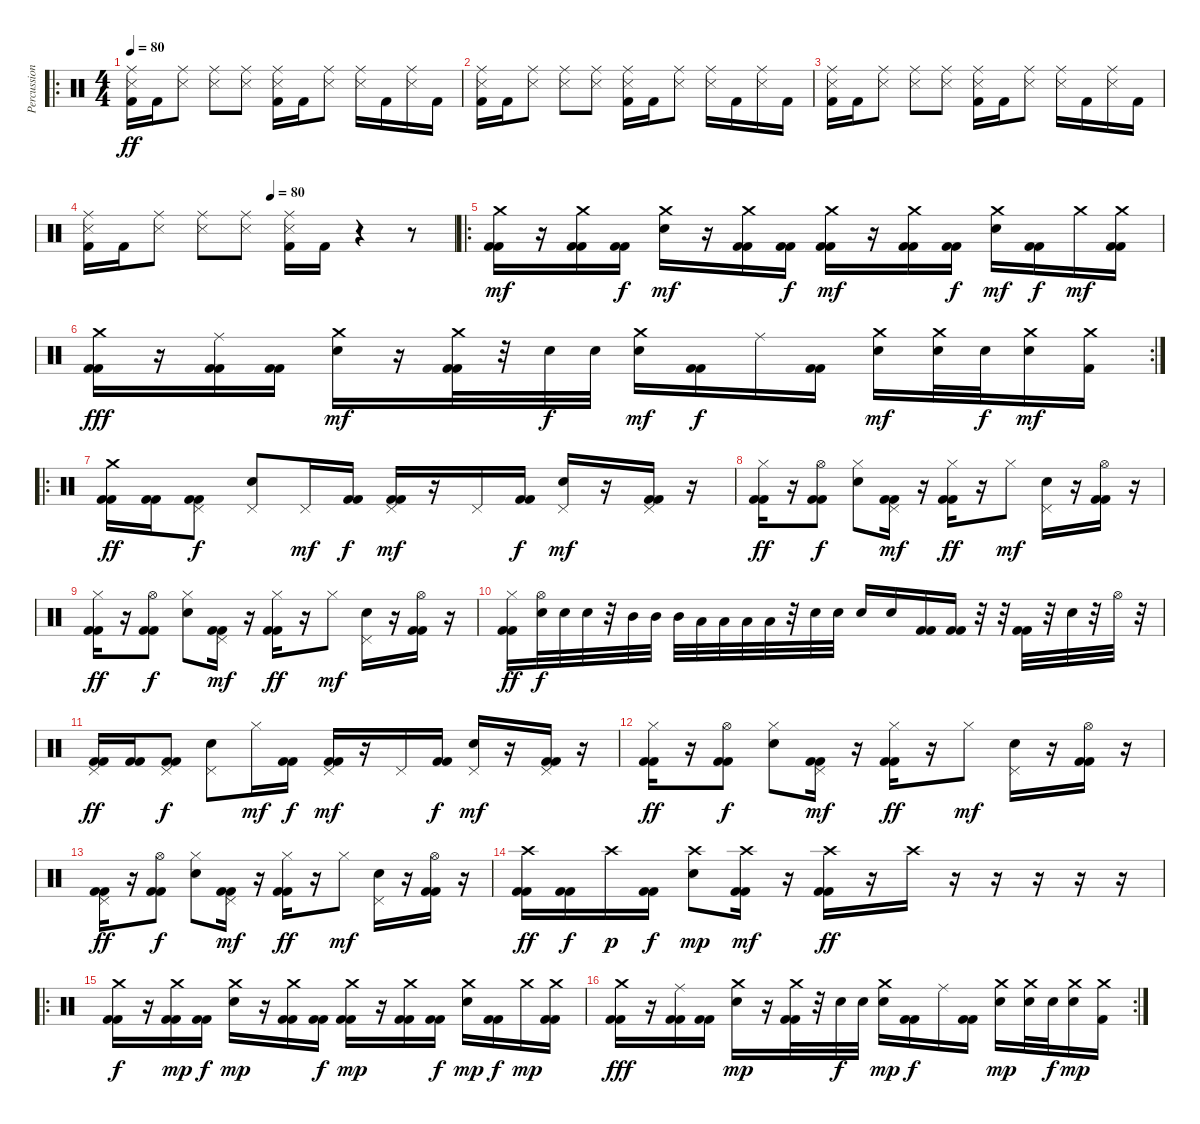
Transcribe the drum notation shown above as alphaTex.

\track ("Percussion" "Percussion") {instrument percussion}
\staff {score}
\articulation defaults
\ro
\ts (4 4)
\tempo 80
\clef neutral
\ks c
("Ride (middle)" "Metronome (hit)" "Kick (hit) 2").16{dy ff} "Kick (hit) 2".16 ("Ride (middle)" "Metronome (hit)").8 ("Ride (middle)" "Metronome (hit)").8 ("Ride (middle)" "Metronome (hit)").8 ("Ride (middle)" "Metronome (hit)" "Kick (hit) 2").16 "Kick (hit) 2".16 ("Ride (middle)" "Metronome (hit)").8 ("Ride (middle)" "Metronome (hit)").16 "Kick (hit) 2".16 ("Ride (middle)" "Metronome (hit)").16 "Kick (hit) 2".16 |
("Ride (middle)" "Metronome (hit)" "Kick (hit) 2").16 "Kick (hit) 2".16 ("Ride (middle)" "Metronome (hit)").8 ("Ride (middle)" "Metronome (hit)").8 ("Ride (middle)" "Metronome (hit)").8 ("Ride (middle)" "Metronome (hit)" "Kick (hit) 2").16 "Kick (hit) 2".16 ("Ride (middle)" "Metronome (hit)").8 ("Ride (middle)" "Metronome (hit)").16 "Kick (hit) 2".16 ("Ride (middle)" "Metronome (hit)").16 "Kick (hit) 2".16 |
("Ride (middle)" "Metronome (hit)" "Kick (hit) 2").16 "Kick (hit) 2".16 ("Ride (middle)" "Metronome (hit)").8 ("Ride (middle)" "Metronome (hit)").8 ("Ride (middle)" "Metronome (hit)").8 ("Ride (middle)" "Metronome (hit)" "Kick (hit) 2").16 "Kick (hit) 2".16 ("Ride (middle)" "Metronome (hit)").8 ("Ride (middle)" "Metronome (hit)").16 "Kick (hit) 2".16 ("Ride (middle)" "Metronome (hit)").16 "Kick (hit) 2".16 |
\tempo (80 0.5)
("Ride (middle)" "Metronome (hit)" "Kick (hit) 2").16 "Kick (hit) 2".16 ("Ride (middle)" "Metronome (hit)").8 ("Ride (middle)" "Metronome (hit)").8 ("Ride (middle)" "Metronome (hit)").8 ("Ride (middle)" "Metronome (hit)" "Kick (hit) 2").16 "Kick (hit) 2".16 r.4 r.8 |
\ro
("Crash medium (hit)" "Kick (hit) 2" "Kick (hit) 2").16{dy mf volume 13} r.16 ("Crash medium (hit)" "Kick (hit) 2" "Kick (hit) 2").16 ("Kick (hit) 2" "Kick (hit) 2").16{dy f} ("Crash medium (hit)" "Electric Snare (hit)").16{dy mf} r.16 ("Crash medium (hit)" "Kick (hit) 2" "Kick (hit) 2").16 ("Kick (hit) 2" "Kick (hit) 2").16{dy f} ("Crash medium (hit)" "Kick (hit) 2" "Kick (hit) 2").16{dy mf} r.16 ("Crash medium (hit)" "Kick (hit) 2" "Kick (hit) 2").16 ("Kick (hit) 2" "Kick (hit) 2").16{dy f} ("Crash medium (hit)" "Electric Snare (hit)").16{dy mf} ("Kick (hit) 2" "Kick (hit) 2").16{dy f} "Crash medium (hit)".16{dy mf} ("Crash medium (hit)" "Kick (hit) 2" "Kick (hit) 2").16 |
\rc 2
("Crash medium (hit)" "Kick (hit) 2" "Kick (hit) 2").16{dy fff} r.16 ("Ride (middle)" "Kick (hit) 2" "Kick (hit) 2").16 ("Kick (hit) 2" "Kick (hit) 2").16 ("Crash medium (hit)" "Electric Snare (hit)").16{dy mf} r.16 ("Crash medium (hit)" "Kick (hit) 2" "Kick (hit) 2").32 r.32 "Electric Snare (hit)".32{dy f} "Electric Snare (hit)".32 ("Crash medium (hit)" "Electric Snare (hit)").16{dy mf} ("Kick (hit) 2" "Kick (hit) 2").16{dy f} "Ride (middle)".16 ("Kick (hit) 2" "Kick (hit) 2").16 ("Crash medium (hit)" "Electric Snare (hit)").16{dy mf} ("Crash medium (hit)" "Electric Snare (hit)").32 "Electric Snare (hit)".32{dy f} ("Crash medium (hit)" "Electric Snare (hit)").16{dy mf} ("Crash medium (hit)" "Kick (hit) 2").16 |
\ro
("Crash medium (hit)" "Kick (hit) 2" "Kick (hit) 2").16{dy ff} ("Kick (hit) 2" "Kick (hit) 2").16 ("Pedal Hi-Hat (hit)" "Kick (hit) 2" "Kick (hit) 2").8{dy f} ("Pedal Hi-Hat (hit)" "Electric Snare (hit)").8 "Pedal Hi-Hat (hit)".16{dy mf} ("Kick (hit) 2" "Kick (hit) 2").16{dy f} ("Pedal Hi-Hat (hit)" "Kick (hit) 2" "Kick (hit) 2").16{dy mf} r.16 "Pedal Hi-Hat (hit)".16 ("Kick (hit) 2" "Kick (hit) 2").16{dy f} ("Pedal Hi-Hat (hit)" "Electric Snare (hit)").16{dy mf} r.16 ("Pedal Hi-Hat (hit)" "Kick (hit) 2" "Kick (hit) 2").16 r.16 |
("Hi-Hat (closed)" "Kick (hit) 2" "Kick (hit) 2").16{dy ff} r.16 ("Hi-Hat (open)" "Kick (hit) 2" "Kick (hit) 2").8{dy f} ("Hi-Hat (closed)" "Electric Snare (hit)").8 ("Pedal Hi-Hat (hit)" "Kick (hit) 2" "Kick (hit) 2").16{dy mf} r.16 ("Hi-Hat (closed)" "Kick (hit) 2" "Kick (hit) 2").16{dy ff} r.16 "Hi-Hat (closed)".8{dy mf} ("Pedal Hi-Hat (hit)" "Electric Snare (hit)").16 r.16 ("Hi-Hat (open)" "Kick (hit) 2" "Kick (hit) 2").16 r.16 |
("Hi-Hat (closed)" "Kick (hit) 2" "Kick (hit) 2").16{dy ff} r.16 ("Hi-Hat (open)" "Kick (hit) 2" "Kick (hit) 2").8{dy f} ("Hi-Hat (closed)" "Electric Snare (hit)").8 ("Pedal Hi-Hat (hit)" "Kick (hit) 2" "Kick (hit) 2").16{dy mf} r.16 ("Hi-Hat (closed)" "Kick (hit) 2" "Kick (hit) 2").16{dy ff} r.16 "Hi-Hat (closed)".8{dy mf} ("Pedal Hi-Hat (hit)" "Electric Snare (hit)").16 r.16 ("Hi-Hat (open)" "Kick (hit) 2" "Kick (hit) 2").16 r.16 |
("Hi-Hat (closed)" "Kick (hit) 2" "Kick (hit) 2").16{dy ff} ("Hi-Hat (open)" "Electric Snare (hit)").32{dy f} "Electric Snare (hit)".32 "Electric Snare (hit)".32 r.32 "Mid Tom (hit)".32 "Mid Tom (hit)".32 "Mid Tom (hit)".32 "Low Tom (hit)".32 "Low Tom (hit)".32 "Low Tom (hit)".32 "Low Floor Tom (hit)".32 r.32 "Electric Snare (hit)".32 "Electric Snare (hit)".32 "Electric Snare (hit)".16 "Electric Snare (hit)".16 ("Kick (hit) 2" "Kick (hit) 2").16 ("Kick (hit) 2" "Kick (hit) 2").16 r.32 r.32 ("Kick (hit) 2" "Kick (hit) 2").32 r.32 "Electric Snare (hit)".32 r.32 "Hi-Hat (open)".32 r.32 |
("Pedal Hi-Hat (hit)" "Kick (hit) 2" "Kick (hit) 2").16{dy ff} ("Kick (hit) 2" "Kick (hit) 2").16 ("Pedal Hi-Hat (hit)" "Kick (hit) 2" "Kick (hit) 2").8{dy f} ("Pedal Hi-Hat (hit)" "Electric Snare (hit)").8 "Hi-Hat (closed)".16{dy mf} ("Kick (hit) 2" "Kick (hit) 2").16{dy f} ("Pedal Hi-Hat (hit)" "Kick (hit) 2" "Kick (hit) 2").16{dy mf} r.16 "Pedal Hi-Hat (hit)".16 ("Kick (hit) 2" "Kick (hit) 2").16{dy f} ("Pedal Hi-Hat (hit)" "Electric Snare (hit)").16{dy mf} r.16 ("Pedal Hi-Hat (hit)" "Kick (hit) 2" "Kick (hit) 2").16 r.16 |
("Hi-Hat (closed)" "Kick (hit) 2" "Kick (hit) 2").16{dy ff} r.16 ("Hi-Hat (open)" "Kick (hit) 2" "Kick (hit) 2").8{dy f} ("Hi-Hat (closed)" "Electric Snare (hit)").8 ("Pedal Hi-Hat (hit)" "Kick (hit) 2" "Kick (hit) 2").16{dy mf} r.16 ("Hi-Hat (closed)" "Kick (hit) 2" "Kick (hit) 2").16{dy ff} r.16 "Hi-Hat (closed)".8{dy mf} ("Pedal Hi-Hat (hit)" "Electric Snare (hit)").16 r.16 ("Hi-Hat (open)" "Kick (hit) 2" "Kick (hit) 2").16 r.16 |
("Pedal Hi-Hat (hit)" "Kick (hit) 2" "Kick (hit) 2").16{dy ff} r.16 ("Hi-Hat (open)" "Kick (hit) 2" "Kick (hit) 2").8{dy f} ("Hi-Hat (closed)" "Electric Snare (hit)").8 ("Pedal Hi-Hat (hit)" "Kick (hit) 2" "Kick (hit) 2").16{dy mf} r.16 ("Hi-Hat (closed)" "Kick (hit) 2" "Kick (hit) 2").16{dy ff} r.16 "Hi-Hat (closed)".8{dy mf} ("Pedal Hi-Hat (hit)" "Electric Snare (hit)").16 r.16 ("Hi-Hat (open)" "Kick (hit) 2" "Kick (hit) 2").16 r.16 |
("Crash high (hit)" "Kick (hit) 2" "Kick (hit) 2").16{dy ff} ("Kick (hit) 2" "Kick (hit) 2").16{dy f} "Crash high (hit)".16{dy p} ("Kick (hit) 2" "Kick (hit) 2").16{dy f} ("Crash high (hit)" "Electric Snare (hit)").8{dy mp} ("Crash high (hit)" "Kick (hit) 2" "Kick (hit) 2").16{dy mf} r.16 ("Crash high (hit)" "Kick (hit) 2" "Kick (hit) 2").16{dy ff} r.16 "Crash high (hit)".16 r.16 r.16 r.16 r.16 r.16 |
\ro
("Crash medium (hit)" "Kick (hit) 2" "Kick (hit) 2").16{dy f volume 13} r.16 ("Crash medium (hit)" "Kick (hit) 2" "Kick (hit) 2").16{dy mp} ("Kick (hit) 2" "Kick (hit) 2").16{dy f} ("Crash medium (hit)" "Electric Snare (hit)").16{dy mp} r.16 ("Crash medium (hit)" "Kick (hit) 2" "Kick (hit) 2").16 ("Kick (hit) 2" "Kick (hit) 2").16{dy f} ("Crash medium (hit)" "Kick (hit) 2" "Kick (hit) 2").16{dy mp} r.16 ("Crash medium (hit)" "Kick (hit) 2" "Kick (hit) 2").16 ("Kick (hit) 2" "Kick (hit) 2").16{dy f} ("Crash medium (hit)" "Electric Snare (hit)").16{dy mp} ("Kick (hit) 2" "Kick (hit) 2").16{dy f} "Crash medium (hit)".16{dy mp} ("Crash medium (hit)" "Kick (hit) 2" "Kick (hit) 2").16 |
\rc 2
("Crash medium (hit)" "Kick (hit) 2" "Kick (hit) 2").16{dy fff} r.16 ("Ride (middle)" "Kick (hit) 2" "Kick (hit) 2").16 ("Kick (hit) 2" "Kick (hit) 2").16 ("Crash medium (hit)" "Electric Snare (hit)").16{dy mp} r.16 ("Crash medium (hit)" "Kick (hit) 2" "Kick (hit) 2").32 r.32 "Electric Snare (hit)".32{dy f} "Electric Snare (hit)".32 ("Crash medium (hit)" "Electric Snare (hit)").16{dy mp} ("Kick (hit) 2" "Kick (hit) 2").16{dy f} "Ride (middle)".16 ("Kick (hit) 2" "Kick (hit) 2").16 ("Crash medium (hit)" "Electric Snare (hit)").16{dy mp} ("Crash medium (hit)" "Electric Snare (hit)").32 "Electric Snare (hit)".32{dy f} ("Crash medium (hit)" "Electric Snare (hit)").16{dy mp} ("Crash medium (hit)" "Kick (hit) 2").16
